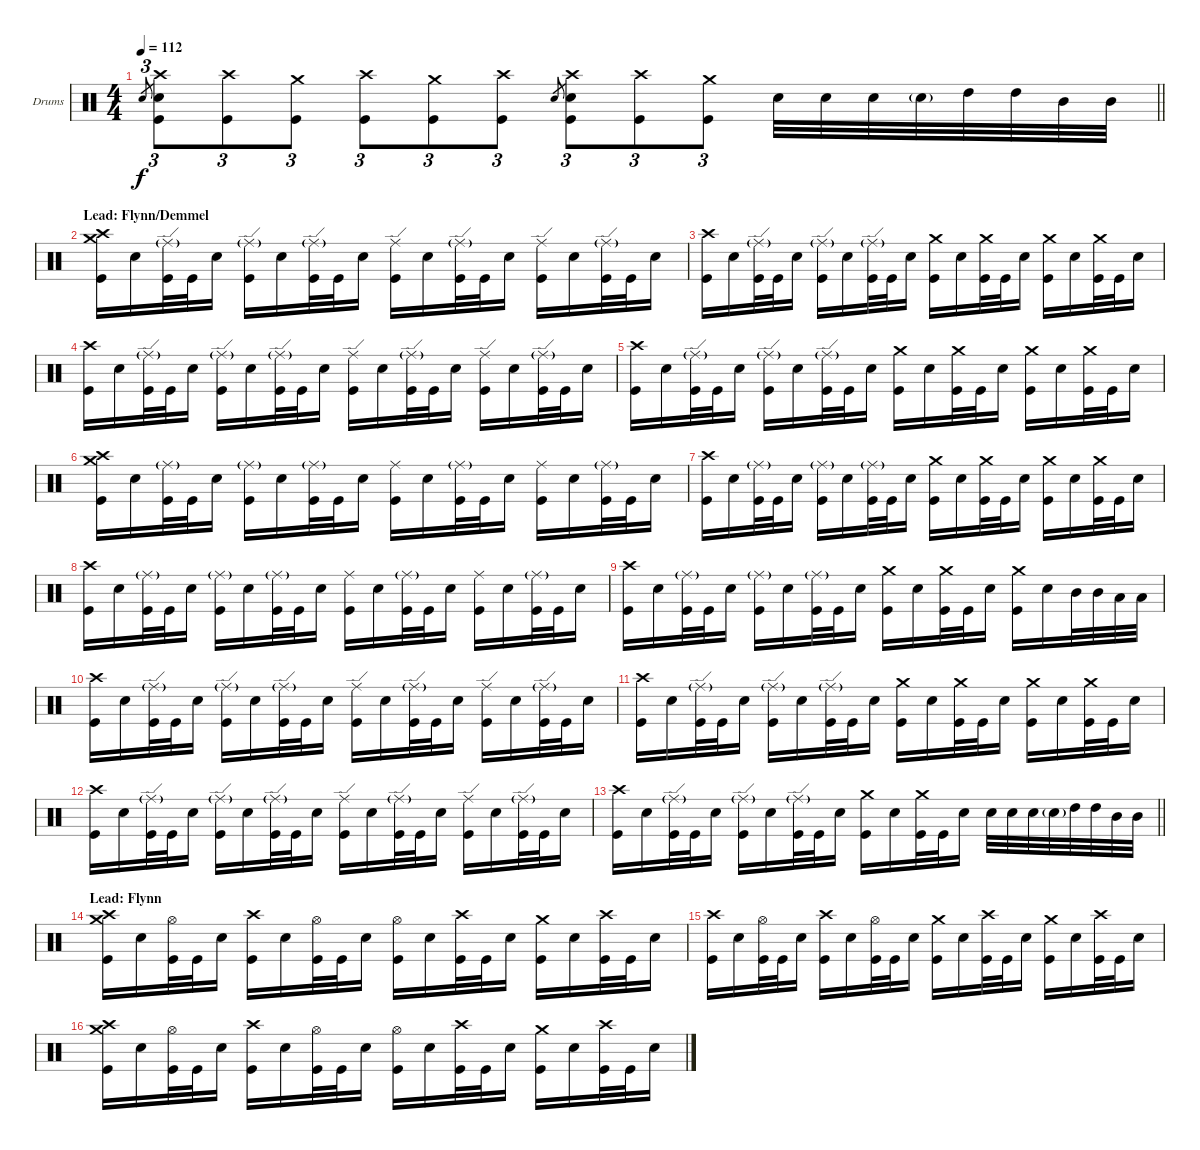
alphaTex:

\bracketExtendMode groupsimilarinstruments
\firstSystemTrackNameOrientation horizontal
\otherSystemsTrackNameOrientation horizontal
\track ("Drumkit" "Drums") {instrument percussion}
\staff {score}
\articulation defaults
\ts (4 4)
\tempo 112
\clef neutral
\scale
0.333333
\barLineRight lightlight
\ks c "Snare (hit) 2".8{tu (3 2) gr dy f}
("Kick (hit)" "Crash high (hit)" "Snare (hit) 2").8{tu (3 2)} ("Kick (hit)" "Crash high (hit)").8{tu (3 2)} ("Kick (hit)" "Crash medium (hit)").8{tu (3 2)} ("Kick (hit)" "Crash high (hit)").8{tu (3 2)} ("Kick (hit)" "Crash medium (hit)").8{tu (3 2)} ("Kick (hit)" "Crash high (hit)").8{tu (3 2)} "Snare (hit) 2".8{tu (3 2) gr} ("Kick (hit)" "Crash high (hit)" "Snare (hit) 2").8{tu (3 2)} ("Kick (hit)" "Crash high (hit)").8{tu (3 2)} ("Kick (hit)" "Crash medium (hit)").8{tu (3 2)} "Snare (hit) 2".32 "Snare (hit) 2".32 "Snare (hit) 2".32 "Snare (hit) 2"{g}.32 "High Tom (hit)".32 "High Tom (hit)".32 "Mid Tom (hit)".32 "Mid Tom (hit)".32 |
\section ("" "Lead: Flynn/Demmel")
\scale
0.333333 ("Kick (hit)" "Crash medium (hit)" "Crash high (hit)").16 "Snare (hit) 2".16 ("Kick (hit)" "Ride (edge)"{g}).32 "Kick (hit)".32 "Snare (hit) 2".16 ("Kick (hit)" "Ride (edge)"{g}).16 "Snare (hit) 2".16 ("Kick (hit)" "Ride (edge)"{g}).32 "Kick (hit)".32 "Snare (hit) 2".16 ("Kick (hit)" "Ride (edge)").16 "Snare (hit) 2".16 ("Kick (hit)" "Ride (edge)"{g}).32 "Kick (hit)".32 "Snare (hit) 2".16 ("Kick (hit)" "Ride (edge)").16 "Snare (hit) 2".16 ("Kick (hit)" "Ride (edge)"{g}).32 "Kick (hit)".32 "Snare (hit) 2".16 |
\scale
0.333333 ("Kick (hit)" "Crash high (hit)").16 "Snare (hit) 2".16 ("Kick (hit)" "Ride (edge)"{g}).32 "Kick (hit)".32 "Snare (hit) 2".16 ("Kick (hit)" "Ride (edge)"{g}).16 "Snare (hit) 2".16 ("Kick (hit)" "Ride (edge)"{g}).32 "Kick (hit)".32 "Snare (hit) 2".16 ("Kick (hit)" "Crash medium (hit)").16 "Snare (hit) 2".16 ("Kick (hit)" "Crash medium (hit)").32 "Kick (hit)".32 "Snare (hit) 2".16 ("Kick (hit)" "Crash medium (hit)").16 "Snare (hit) 2".16 ("Kick (hit)" "Crash medium (hit)").32 "Kick (hit)".32 "Snare (hit) 2".16 |
\scale
0.333333 ("Kick (hit)" "Crash high (hit)").16 "Snare (hit) 2".16 ("Kick (hit)" "Ride (edge)"{g}).32 "Kick (hit)".32 "Snare (hit) 2".16 ("Kick (hit)" "Ride (edge)"{g}).16 "Snare (hit) 2".16 ("Kick (hit)" "Ride (edge)"{g}).32 "Kick (hit)".32 "Snare (hit) 2".16 ("Kick (hit)" "Ride (edge)").16 "Snare (hit) 2".16 ("Kick (hit)" "Ride (edge)"{g}).32 "Kick (hit)".32 "Snare (hit) 2".16 ("Kick (hit)" "Ride (edge)").16 "Snare (hit) 2".16 ("Kick (hit)" "Ride (edge)"{g}).32 "Kick (hit)".32 "Snare (hit) 2".16 |
\scale
0.333333 ("Kick (hit)" "Crash high (hit)").16 "Snare (hit) 2".16 ("Kick (hit)" "Ride (edge)"{g}).32 "Kick (hit)".32 "Snare (hit) 2".16 ("Kick (hit)" "Ride (edge)"{g}).16 "Snare (hit) 2".16 ("Kick (hit)" "Ride (edge)"{g}).32 "Kick (hit)".32 "Snare (hit) 2".16 ("Kick (hit)" "Crash medium (hit)").16 "Snare (hit) 2".16 ("Kick (hit)" "Crash medium (hit)").32 "Kick (hit)".32 "Snare (hit) 2".16 ("Kick (hit)" "Crash medium (hit)").16 "Snare (hit) 2".16 ("Kick (hit)" "Crash medium (hit)").32 "Kick (hit)".32 "Snare (hit) 2".16 |
\scale
0.333333 ("Kick (hit)" "Crash medium (hit)" "Crash high (hit)").16 "Snare (hit) 2".16 ("Kick (hit)" "Ride (middle)"{g}).32 "Kick (hit)".32 "Snare (hit) 2".16 ("Kick (hit)" "Ride (middle)"{g}).16 "Snare (hit) 2".16 ("Kick (hit)" "Ride (middle)"{g}).32 "Kick (hit)".32 "Snare (hit) 2".16 ("Kick (hit)" "Ride (middle)").16 "Snare (hit) 2".16 ("Kick (hit)" "Ride (middle)"{g}).32 "Kick (hit)".32 "Snare (hit) 2".16 ("Kick (hit)" "Ride (middle)").16 "Snare (hit) 2".16 ("Kick (hit)" "Ride (middle)"{g}).32 "Kick (hit)".32 "Snare (hit) 2".16 |
\scale
0.333333 ("Kick (hit)" "Crash high (hit)").16 "Snare (hit) 2".16 ("Kick (hit)" "Ride (middle)"{g}).32 "Kick (hit)".32 "Snare (hit) 2".16 ("Kick (hit)" "Ride (middle)"{g}).16 "Snare (hit) 2".16 ("Kick (hit)" "Ride (middle)"{g}).32 "Kick (hit)".32 "Snare (hit) 2".16 ("Kick (hit)" "Crash medium (hit)").16 "Snare (hit) 2".16 ("Kick (hit)" "Crash medium (hit)").32 "Kick (hit)".32 "Snare (hit) 2".16 ("Kick (hit)" "Crash medium (hit)").16 "Snare (hit) 2".16 ("Kick (hit)" "Crash medium (hit)").32 "Kick (hit)".32 "Snare (hit) 2".16 |
\scale
0.333333 ("Kick (hit)" "Crash high (hit)").16 "Snare (hit) 2".16 ("Kick (hit)" "Ride (middle)"{g}).32 "Kick (hit)".32 "Snare (hit) 2".16 ("Kick (hit)" "Ride (middle)"{g}).16 "Snare (hit) 2".16 ("Kick (hit)" "Ride (middle)"{g}).32 "Kick (hit)".32 "Snare (hit) 2".16 ("Kick (hit)" "Ride (middle)").16 "Snare (hit) 2".16 ("Kick (hit)" "Ride (middle)"{g}).32 "Kick (hit)".32 "Snare (hit) 2".16 ("Kick (hit)" "Ride (middle)").16 "Snare (hit) 2".16 ("Kick (hit)" "Ride (middle)"{g}).32 "Kick (hit)".32 "Snare (hit) 2".16 |
\scale
0.333333 ("Kick (hit)" "Crash high (hit)").16 "Snare (hit) 2".16 ("Kick (hit)" "Ride (middle)"{g}).32 "Kick (hit)".32 "Snare (hit) 2".16 ("Kick (hit)" "Ride (middle)"{g}).16 "Snare (hit) 2".16 ("Kick (hit)" "Ride (middle)"{g}).32 "Kick (hit)".32 "Snare (hit) 2".16 ("Kick (hit)" "Crash medium (hit)").16 "Snare (hit) 2".16 ("Kick (hit)" "Crash medium (hit)").32 "Kick (hit)".32 "Snare (hit) 2".16 ("Kick (hit)" "Crash medium (hit)").16 "Snare (hit) 2".16 "Mid Tom (hit)".32 "Mid Tom (hit)".32 "Low Tom (hit)".32 "Low Tom (hit)".32 |
\scale
0.333333 ("Kick (hit)" "Crash high (hit)").16 "Snare (hit) 2".16 ("Kick (hit)" "Ride (edge)"{g}).32 "Kick (hit)".32 "Snare (hit) 2".16 ("Kick (hit)" "Ride (edge)"{g}).16 "Snare (hit) 2".16 ("Kick (hit)" "Ride (edge)"{g}).32 "Kick (hit)".32 "Snare (hit) 2".16 ("Kick (hit)" "Ride (edge)").16 "Snare (hit) 2".16 ("Kick (hit)" "Ride (edge)"{g}).32 "Kick (hit)".32 "Snare (hit) 2".16 ("Kick (hit)" "Ride (edge)").16 "Snare (hit) 2".16 ("Kick (hit)" "Ride (edge)"{g}).32 "Kick (hit)".32 "Snare (hit) 2".16 |
\scale
0.333333 ("Kick (hit)" "Crash high (hit)").16 "Snare (hit) 2".16 ("Kick (hit)" "Ride (edge)"{g}).32 "Kick (hit)".32 "Snare (hit) 2".16 ("Kick (hit)" "Ride (edge)"{g}).16 "Snare (hit) 2".16 ("Kick (hit)" "Ride (edge)"{g}).32 "Kick (hit)".32 "Snare (hit) 2".16 ("Kick (hit)" "Crash medium (hit)").16 "Snare (hit) 2".16 ("Kick (hit)" "Crash medium (hit)").32 "Kick (hit)".32 "Snare (hit) 2".16 ("Kick (hit)" "Crash medium (hit)").16 "Snare (hit) 2".16 ("Kick (hit)" "Crash medium (hit)").32 "Kick (hit)".32 "Snare (hit) 2".16 |
\scale
0.333333 ("Kick (hit)" "Crash high (hit)").16 "Snare (hit) 2".16 ("Kick (hit)" "Ride (edge)"{g}).32 "Kick (hit)".32 "Snare (hit) 2".16 ("Kick (hit)" "Ride (edge)"{g}).16 "Snare (hit) 2".16 ("Kick (hit)" "Ride (edge)"{g}).32 "Kick (hit)".32 "Snare (hit) 2".16 ("Kick (hit)" "Ride (edge)").16 "Snare (hit) 2".16 ("Kick (hit)" "Ride (edge)"{g}).32 "Kick (hit)".32 "Snare (hit) 2".16 ("Kick (hit)" "Ride (edge)").16 "Snare (hit) 2".16 ("Kick (hit)" "Ride (edge)"{g}).32 "Kick (hit)".32 "Snare (hit) 2".16 |
\scale
0.333333
\barLineRight lightlight
("Kick (hit)" "Crash high (hit)").16 "Snare (hit) 2".16 ("Kick (hit)" "Ride (edge)"{g}).32 "Kick (hit)".32 "Snare (hit) 2".16 ("Kick (hit)" "Ride (edge)"{g}).16 "Snare (hit) 2".16 ("Kick (hit)" "Ride (edge)"{g}).32 "Kick (hit)".32 "Snare (hit) 2".16 ("Kick (hit)" "Crash medium (hit)").16 "Snare (hit) 2".16 ("Kick (hit)" "Crash medium (hit)").32 "Kick (hit)".32 "Snare (hit) 2".16 "Snare (hit) 2".32 "Snare (hit) 2".32 "Snare (hit) 2".32 "Snare (hit) 2"{g}.32 "High Tom (hit)".32 "High Tom (hit)".32 "Mid Tom (hit)".32 "Mid Tom (hit)".32 |
\section ("" "Lead: Flynn")
\scale
0.333333 ("Kick (hit)" "Crash medium (hit)" "Crash high (hit)").16 "Snare (hit) 2".16 ("Kick (hit)" "Hi-Hat (open)").32 "Kick (hit)".32 "Snare (hit) 2".16 ("Kick (hit)" "Crash high (hit)").16 "Snare (hit) 2".16 ("Kick (hit)" "Hi-Hat (open)").32 "Kick (hit)".32 "Snare (hit) 2".16 ("Kick (hit)" "Hi-Hat (open)").16 "Snare (hit) 2".16 ("Kick (hit)" "Crash high (hit)").32 "Kick (hit)".32 "Snare (hit) 2".16 ("Kick (hit)" "Crash medium (hit)").16 "Snare (hit) 2".16 ("Kick (hit)" "Crash high (hit)").32 "Kick (hit)".32 "Snare (hit) 2".16 |
\scale
0.333333 ("Kick (hit)" "Crash high (hit)").16 "Snare (hit) 2".16 ("Kick (hit)" "Hi-Hat (open)").32 "Kick (hit)".32 "Snare (hit) 2".16 ("Kick (hit)" "Crash high (hit)").16 "Snare (hit) 2".16 ("Kick (hit)" "Hi-Hat (open)").32 "Kick (hit)".32 "Snare (hit) 2".16 ("Kick (hit)" "Crash medium (hit)").16 "Snare (hit) 2".16 ("Kick (hit)" "Crash high (hit)").32 "Kick (hit)".32 "Snare (hit) 2".16 ("Kick (hit)" "Crash medium (hit)").16 "Snare (hit) 2".16 ("Kick (hit)" "Crash high (hit)").32 "Kick (hit)".32 "Snare (hit) 2".16 |
\scale
0.333333 ("Kick (hit)" "Crash medium (hit)" "Crash high (hit)").16 "Snare (hit) 2".16 ("Kick (hit)" "Hi-Hat (open)").32 "Kick (hit)".32 "Snare (hit) 2".16 ("Kick (hit)" "Crash high (hit)").16 "Snare (hit) 2".16 ("Kick (hit)" "Hi-Hat (open)").32 "Kick (hit)".32 "Snare (hit) 2".16 ("Kick (hit)" "Hi-Hat (open)").16 "Snare (hit) 2".16 ("Kick (hit)" "Crash high (hit)").32 "Kick (hit)".32 "Snare (hit) 2".16 ("Kick (hit)" "Crash medium (hit)").16 "Snare (hit) 2".16 ("Kick (hit)" "Crash high (hit)").32 "Kick (hit)".32 "Snare (hit) 2".16
